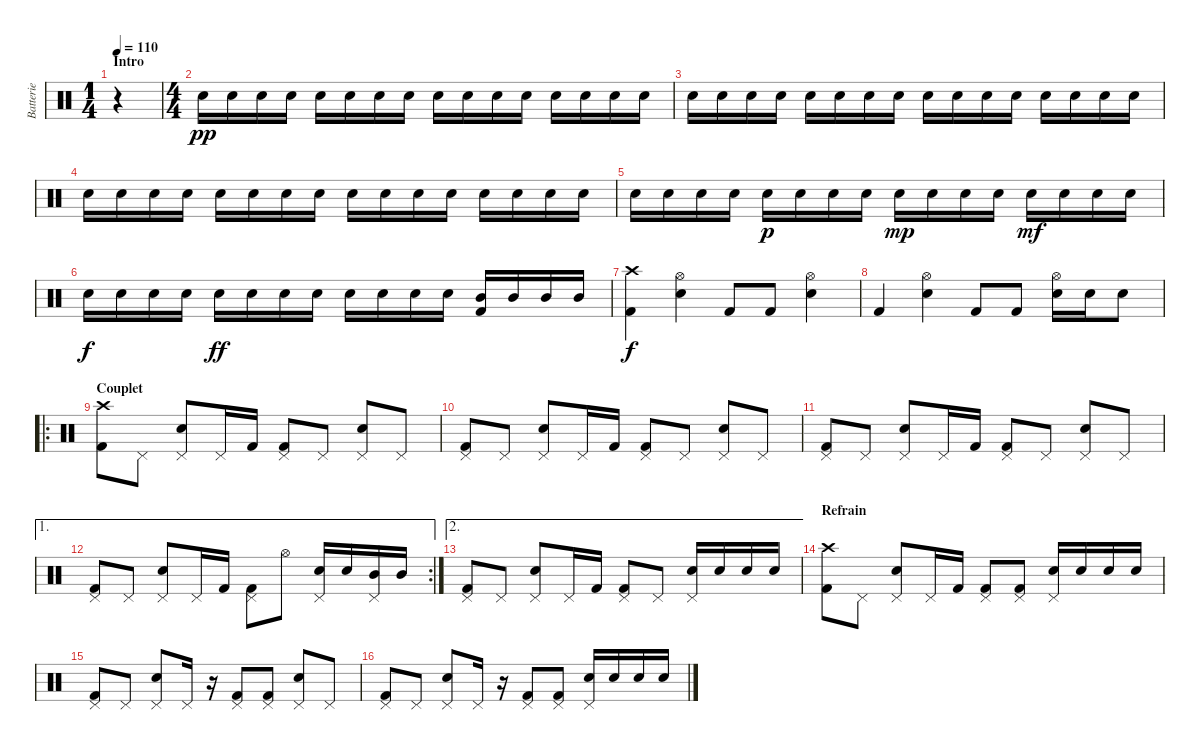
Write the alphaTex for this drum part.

\track ("Batterie" "Batterie") {instrument percussion}
\staff {score}
\articulation defaults
\ts (1 4)
\section ("" "Intro")
\tempo 110
\clef neutral
\ks c
r.4{dy pp} |
\ts (4 4)
"Electric Snare (hit)".16 "Electric Snare (hit)".16 "Electric Snare (hit)".16 "Electric Snare (hit)".16 "Electric Snare (hit)".16 "Electric Snare (hit)".16 "Electric Snare (hit)".16 "Electric Snare (hit)".16 "Electric Snare (hit)".16 "Electric Snare (hit)".16 "Electric Snare (hit)".16 "Electric Snare (hit)".16 "Electric Snare (hit)".16 "Electric Snare (hit)".16 "Electric Snare (hit)".16 "Electric Snare (hit)".16 |
"Electric Snare (hit)".16 "Electric Snare (hit)".16 "Electric Snare (hit)".16 "Electric Snare (hit)".16 "Electric Snare (hit)".16 "Electric Snare (hit)".16 "Electric Snare (hit)".16 "Electric Snare (hit)".16 "Electric Snare (hit)".16 "Electric Snare (hit)".16 "Electric Snare (hit)".16 "Electric Snare (hit)".16 "Electric Snare (hit)".16 "Electric Snare (hit)".16 "Electric Snare (hit)".16 "Electric Snare (hit)".16 |
"Electric Snare (hit)".16 "Electric Snare (hit)".16 "Electric Snare (hit)".16 "Electric Snare (hit)".16 "Electric Snare (hit)".16 "Electric Snare (hit)".16 "Electric Snare (hit)".16 "Electric Snare (hit)".16 "Electric Snare (hit)".16 "Electric Snare (hit)".16 "Electric Snare (hit)".16 "Electric Snare (hit)".16 "Electric Snare (hit)".16 "Electric Snare (hit)".16 "Electric Snare (hit)".16 "Electric Snare (hit)".16 |
"Electric Snare (hit)".16 "Electric Snare (hit)".16 "Electric Snare (hit)".16 "Electric Snare (hit)".16 "Electric Snare (hit)".16{dy p} "Electric Snare (hit)".16 "Electric Snare (hit)".16 "Electric Snare (hit)".16 "Electric Snare (hit)".16{dy mp} "Electric Snare (hit)".16 "Electric Snare (hit)".16 "Electric Snare (hit)".16 "Electric Snare (hit)".16{dy mf} "Electric Snare (hit)".16 "Electric Snare (hit)".16 "Electric Snare (hit)".16 |
"Electric Snare (hit)".16{dy f} "Electric Snare (hit)".16 "Electric Snare (hit)".16 "Electric Snare (hit)".16 "Electric Snare (hit)".16{dy ff} "Electric Snare (hit)".16 "Electric Snare (hit)".16 "Electric Snare (hit)".16 "Electric Snare (hit)".16 "Electric Snare (hit)".16 "Electric Snare (hit)".16 "Electric Snare (hit)".16 ("Mid Tom (hit)" "Kick (hit) 2").16 "Mid Tom (hit)".16 "Mid Tom (hit)".16 "Mid Tom (hit)".16 |
("Crash high (hit)" "Kick (hit) 2").4{dy f} ("Hi-Hat (open)" "Electric Snare (hit)").4 "Kick (hit) 2".8 "Kick (hit) 2".8 ("Hi-Hat (open)" "Electric Snare (hit)").4 |
"Kick (hit) 2".4 ("Hi-Hat (open)" "Electric Snare (hit)").4 "Kick (hit) 2".8 "Kick (hit) 2".8 ("Hi-Hat (open)" "Electric Snare (hit)").16 "Electric Snare (hit)".16 "Electric Snare (hit)".8 |
\ro
\section ("" "Couplet")
("Crash high (hit)" "Kick (hit) 2").8 "Pedal Hi-Hat (hit)".8 ("Pedal Hi-Hat (hit)" "Electric Snare (hit)").8 "Pedal Hi-Hat (hit)".16 "Kick (hit) 2".16 ("Pedal Hi-Hat (hit)" "Kick (hit) 2").8 "Pedal Hi-Hat (hit)".8 ("Pedal Hi-Hat (hit)" "Electric Snare (hit)").8 "Pedal Hi-Hat (hit)".8 |
("Pedal Hi-Hat (hit)" "Kick (hit) 2").8 "Pedal Hi-Hat (hit)".8 ("Pedal Hi-Hat (hit)" "Electric Snare (hit)").8 "Pedal Hi-Hat (hit)".16 "Kick (hit) 2".16 ("Pedal Hi-Hat (hit)" "Kick (hit) 2").8 "Pedal Hi-Hat (hit)".8 ("Pedal Hi-Hat (hit)" "Electric Snare (hit)").8 "Pedal Hi-Hat (hit)".8 |
("Pedal Hi-Hat (hit)" "Kick (hit) 2").8 "Pedal Hi-Hat (hit)".8 ("Pedal Hi-Hat (hit)" "Electric Snare (hit)").8 "Pedal Hi-Hat (hit)".16 "Kick (hit) 2".16 ("Pedal Hi-Hat (hit)" "Kick (hit) 2").8 "Pedal Hi-Hat (hit)".8 ("Pedal Hi-Hat (hit)" "Electric Snare (hit)").8 "Pedal Hi-Hat (hit)".8 |
\ae 1
\rc 2
("Pedal Hi-Hat (hit)" "Kick (hit) 2").8 "Pedal Hi-Hat (hit)".8 ("Pedal Hi-Hat (hit)" "Electric Snare (hit)").8 "Pedal Hi-Hat (hit)".16 "Kick (hit) 2".16 ("Pedal Hi-Hat (hit)" "Kick (hit) 2").8 "Hi-Hat (open)".8 ("Pedal Hi-Hat (hit)" "Electric Snare (hit)").16 "Electric Snare (hit)".16 ("Pedal Hi-Hat (hit)" "Mid Tom (hit)").16 "Mid Tom (hit)".16 |
\ae 2
("Pedal Hi-Hat (hit)" "Kick (hit) 2").8 "Pedal Hi-Hat (hit)".8 ("Pedal Hi-Hat (hit)" "Electric Snare (hit)").8 "Pedal Hi-Hat (hit)".16 "Kick (hit) 2".16 ("Pedal Hi-Hat (hit)" "Kick (hit) 2").8 "Pedal Hi-Hat (hit)".8 ("Pedal Hi-Hat (hit)" "Electric Snare (hit)").16 "Electric Snare (hit)".16 "Electric Snare (hit)".16 "Electric Snare (hit)".16 |
\section ("" "Refrain")
("Crash high (hit)" "Kick (hit) 2").8 "Pedal Hi-Hat (hit)".8 ("Pedal Hi-Hat (hit)" "Electric Snare (hit)").8 "Pedal Hi-Hat (hit)".16 "Kick (hit) 2".16 ("Pedal Hi-Hat (hit)" "Kick (hit) 2").8 ("Pedal Hi-Hat (hit)" "Kick (hit) 2").8 ("Pedal Hi-Hat (hit)" "Electric Snare (hit)").16 "Electric Snare (hit)".16 "Electric Snare (hit)".16 "Electric Snare (hit)".16 |
("Pedal Hi-Hat (hit)" "Kick (hit) 2").8 "Pedal Hi-Hat (hit)".8 ("Pedal Hi-Hat (hit)" "Electric Snare (hit)").8 "Pedal Hi-Hat (hit)".16 r.16 ("Pedal Hi-Hat (hit)" "Kick (hit) 2").8 ("Pedal Hi-Hat (hit)" "Kick (hit) 2").8 ("Pedal Hi-Hat (hit)" "Electric Snare (hit)").8 "Pedal Hi-Hat (hit)".8 |
("Pedal Hi-Hat (hit)" "Kick (hit) 2").8 "Pedal Hi-Hat (hit)".8 ("Pedal Hi-Hat (hit)" "Electric Snare (hit)").8 "Pedal Hi-Hat (hit)".16 r.16 ("Pedal Hi-Hat (hit)" "Kick (hit) 2").8 ("Pedal Hi-Hat (hit)" "Kick (hit) 2").8 ("Pedal Hi-Hat (hit)" "Electric Snare (hit)").16 "Electric Snare (hit)".16 "Electric Snare (hit)".16 "Electric Snare (hit)".16
